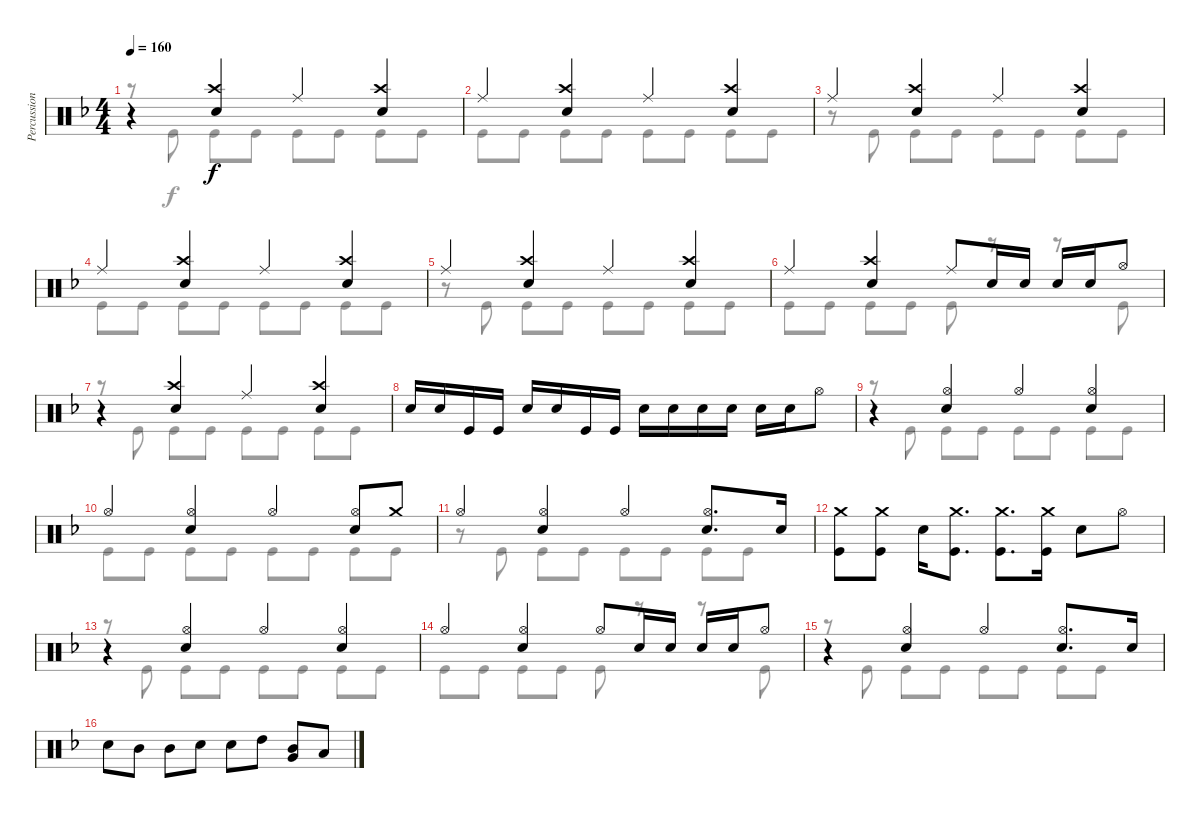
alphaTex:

\track ("Percussion" "Percussion") {instrument percussion}
\staff {score}
\articulation defaults
\voice
\ts (4 4)
\tempo 160
\clef neutral
\ks dminor
r.4{dy f} ("Crash high (hit)" "Snare (hit) 2").4 "Ride (middle)".4 ("Crash high (hit)" "Snare (hit) 2").4 |
"Ride (middle)".4 ("Crash high (hit)" "Snare (hit) 2").4 "Ride (middle)".4 ("Crash high (hit)" "Snare (hit) 2").4 |
"Ride (middle)".4 ("Crash high (hit)" "Snare (hit) 2").4 "Ride (middle)".4 ("Crash high (hit)" "Snare (hit) 2").4 |
"Ride (middle)".4 ("Crash high (hit)" "Snare (hit) 2").4 "Ride (middle)".4 ("Crash high (hit)" "Snare (hit) 2").4 |
"Ride (middle)".4 ("Crash high (hit)" "Snare (hit) 2").4 "Ride (middle)".4 ("Crash high (hit)" "Snare (hit) 2").4 |
"Ride (middle)".4 ("Crash high (hit)" "Snare (hit) 2").4 "Ride (middle)".8 "Snare (hit) 2".16 "Snare (hit) 2".16 "Snare (hit) 2".16 "Snare (hit) 2".16 "Hi-Hat (open)".8 |
r.4 ("Crash high (hit)" "Snare (hit) 2").4 "Ride (middle)".4 ("Crash high (hit)" "Snare (hit) 2").4 |
"Snare (hit) 2".16 "Snare (hit) 2".16 "Kick (hit)".16 "Kick (hit)".16 "Snare (hit) 2".16 "Snare (hit) 2".16 "Kick (hit)".16 "Kick (hit)".16 "Snare (hit) 2".16 "Snare (hit) 2".16 "Snare (hit) 2".16 "Snare (hit) 2".16 "Snare (hit) 2".16 "Snare (hit) 2".16 "Hi-Hat (open)".8 |
r.4 ("Hi-Hat (open)" "Snare (hit) 2").4 "Hi-Hat (open)".4 ("Hi-Hat (open)" "Snare (hit) 2").4 |
"Hi-Hat (open)".4 ("Hi-Hat (open)" "Snare (hit) 2").4 "Hi-Hat (open)".4 ("Hi-Hat (open)" "Snare (hit) 2").8 "Crash medium (hit)".8 |
"Hi-Hat (open)".4 ("Hi-Hat (open)" "Snare (hit) 2").4 "Hi-Hat (open)".4 ("Hi-Hat (open)" "Snare (hit) 2").8{d} "Snare (hit) 2".16 |
("Crash medium (hit)" "Kick (hit)").8 ("Crash medium (hit)" "Kick (hit)").8 "Snare (hit) 2".16 ("Crash medium (hit)" "Kick (hit)").8{d} ("Crash medium (hit)" "Kick (hit)").8{d} ("Crash medium (hit)" "Kick (hit)").16 "Snare (hit) 2".8 "Hi-Hat (open)".8 |
r.4 ("Hi-Hat (open)" "Snare (hit) 2").4 "Hi-Hat (open)".4 ("Hi-Hat (open)" "Snare (hit) 2").4 |
"Hi-Hat (open)".4 ("Hi-Hat (open)" "Snare (hit) 2").4 "Hi-Hat (open)".8 "Snare (hit) 2".16 "Snare (hit) 2".16 "Snare (hit) 2".16 "Snare (hit) 2".16 "Hi-Hat (open)".8 |
r.4 ("Hi-Hat (open)" "Snare (hit) 2").4 "Hi-Hat (open)".4 ("Hi-Hat (open)" "Snare (hit) 2").8{d} "Snare (hit) 2".16 |
"Snare (hit) 2".8 "Mid Tom (hit)".8 "Mid Tom (hit)".8 "Snare (hit) 2".8 "Snare (hit) 2".8 "High Tom (hit)".8 ("Very Low Tom (hit)" "Mid Tom (hit)").8 "Low Tom (hit)".8
\voice
\clef neutral
\ottava regular
\simile none
\ks dminor
r.8{dy f} "Kick (hit)".8 "Kick (hit)".8 "Kick (hit)".8 "Kick (hit)".8 "Kick (hit)".8 "Kick (hit)".8 "Kick (hit)".8 |
"Kick (hit)".8 "Kick (hit)".8 "Kick (hit)".8 "Kick (hit)".8 "Kick (hit)".8 "Kick (hit)".8 "Kick (hit)".8 "Kick (hit)".8 |
r.8 "Kick (hit)".8 "Kick (hit)".8 "Kick (hit)".8 "Kick (hit)".8 "Kick (hit)".8 "Kick (hit)".8 "Kick (hit)".8 |
"Kick (hit)".8 "Kick (hit)".8 "Kick (hit)".8 "Kick (hit)".8 "Kick (hit)".8 "Kick (hit)".8 "Kick (hit)".8 "Kick (hit)".8 |
r.8 "Kick (hit)".8 "Kick (hit)".8 "Kick (hit)".8 "Kick (hit)".8 "Kick (hit)".8 "Kick (hit)".8 "Kick (hit)".8 |
"Kick (hit)".8 "Kick (hit)".8 "Kick (hit)".8 "Kick (hit)".8 "Kick (hit)".8 r.8 r.8 "Kick (hit)".8 |
r.8 "Kick (hit)".8 "Kick (hit)".8 "Kick (hit)".8 "Kick (hit)".8 "Kick (hit)".8 "Kick (hit)".8 "Kick (hit)".8 |
|
r.8 "Kick (hit)".8 "Kick (hit)".8 "Kick (hit)".8 "Kick (hit)".8 "Kick (hit)".8 "Kick (hit)".8 "Kick (hit)".8 |
"Kick (hit)".8 "Kick (hit)".8 "Kick (hit)".8 "Kick (hit)".8 "Kick (hit)".8 "Kick (hit)".8 "Kick (hit)".8 "Kick (hit)".8 |
r.8 "Kick (hit)".8 "Kick (hit)".8 "Kick (hit)".8 "Kick (hit)".8 "Kick (hit)".8 "Kick (hit)".8 "Kick (hit)".8 |
|
r.8 "Kick (hit)".8 "Kick (hit)".8 "Kick (hit)".8 "Kick (hit)".8 "Kick (hit)".8 "Kick (hit)".8 "Kick (hit)".8 |
"Kick (hit)".8 "Kick (hit)".8 "Kick (hit)".8 "Kick (hit)".8 "Kick (hit)".8 r.8 r.8 "Kick (hit)".8 |
r.8 "Kick (hit)".8 "Kick (hit)".8 "Kick (hit)".8 "Kick (hit)".8 "Kick (hit)".8 "Kick (hit)".8 "Kick (hit)".8 |
